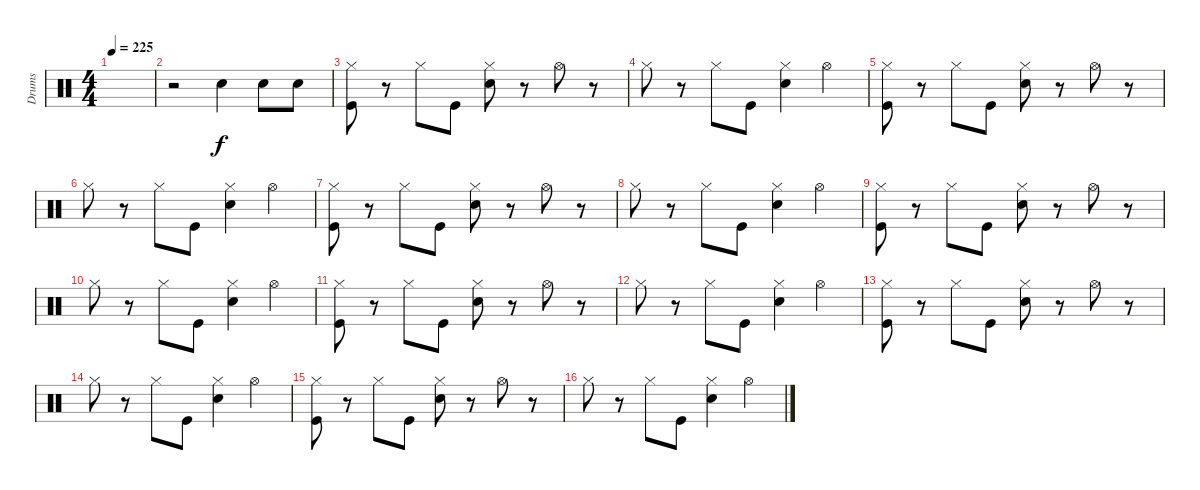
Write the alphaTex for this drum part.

\track ("Drums" "Drums") {instrument percussion}
\staff {score}
\articulation defaults
\ts (4 4)
\tempo 225
\clef neutral
\ks c
|
r.2 "Electric Snare (hit)".4 "Snare (hit) 2".8 "Snare (hit) 2".8 |
("Kick (hit)" "Hi-Hat (closed)").8 r.8 "Hi-Hat (closed)".8 "Kick (hit)".8 ("Electric Snare (hit)" "Hi-Hat (closed)").8 r.8 "Hi-Hat (open)".8 r.8 |
"Hi-Hat (closed)".8 r.8 "Hi-Hat (closed)".8 "Kick (hit)".8 ("Electric Snare (hit)" "Hi-Hat (closed)").4 "Hi-Hat (open)".4 |
("Kick (hit)" "Hi-Hat (closed)").8 r.8 "Hi-Hat (closed)".8 "Kick (hit)".8 ("Electric Snare (hit)" "Hi-Hat (closed)").8 r.8 "Hi-Hat (open)".8 r.8 |
"Hi-Hat (closed)".8 r.8 "Hi-Hat (closed)".8 "Kick (hit)".8 ("Electric Snare (hit)" "Hi-Hat (closed)").4 "Hi-Hat (open)".4 |
("Kick (hit)" "Hi-Hat (closed)").8 r.8 "Hi-Hat (closed)".8 "Kick (hit)".8 ("Electric Snare (hit)" "Hi-Hat (closed)").8 r.8 "Hi-Hat (open)".8 r.8 |
"Hi-Hat (closed)".8 r.8 "Hi-Hat (closed)".8 "Kick (hit)".8 ("Electric Snare (hit)" "Hi-Hat (closed)").4 "Hi-Hat (open)".4 |
("Kick (hit)" "Hi-Hat (closed)").8 r.8 "Hi-Hat (closed)".8 "Kick (hit)".8 ("Electric Snare (hit)" "Hi-Hat (closed)").8 r.8 "Hi-Hat (open)".8 r.8 |
"Hi-Hat (closed)".8 r.8 "Hi-Hat (closed)".8 "Kick (hit)".8 ("Electric Snare (hit)" "Hi-Hat (closed)").4 "Hi-Hat (open)".4 |
("Kick (hit)" "Hi-Hat (closed)").8 r.8 "Hi-Hat (closed)".8 "Kick (hit)".8 ("Electric Snare (hit)" "Hi-Hat (closed)").8 r.8 "Hi-Hat (open)".8 r.8 |
"Hi-Hat (closed)".8 r.8 "Hi-Hat (closed)".8 "Kick (hit)".8 ("Electric Snare (hit)" "Hi-Hat (closed)").4 "Hi-Hat (open)".4 |
("Kick (hit)" "Hi-Hat (closed)").8 r.8 "Hi-Hat (closed)".8 "Kick (hit)".8 ("Electric Snare (hit)" "Hi-Hat (closed)").8 r.8 "Hi-Hat (open)".8 r.8 |
"Hi-Hat (closed)".8 r.8 "Hi-Hat (closed)".8 "Kick (hit)".8 ("Electric Snare (hit)" "Hi-Hat (closed)").4 "Hi-Hat (open)".4 |
("Kick (hit)" "Hi-Hat (closed)").8 r.8 "Hi-Hat (closed)".8 "Kick (hit)".8 ("Electric Snare (hit)" "Hi-Hat (closed)").8 r.8 "Hi-Hat (open)".8 r.8 |
"Hi-Hat (closed)".8 r.8 "Hi-Hat (closed)".8 "Kick (hit)".8 ("Electric Snare (hit)" "Hi-Hat (closed)").4 "Hi-Hat (open)".4
